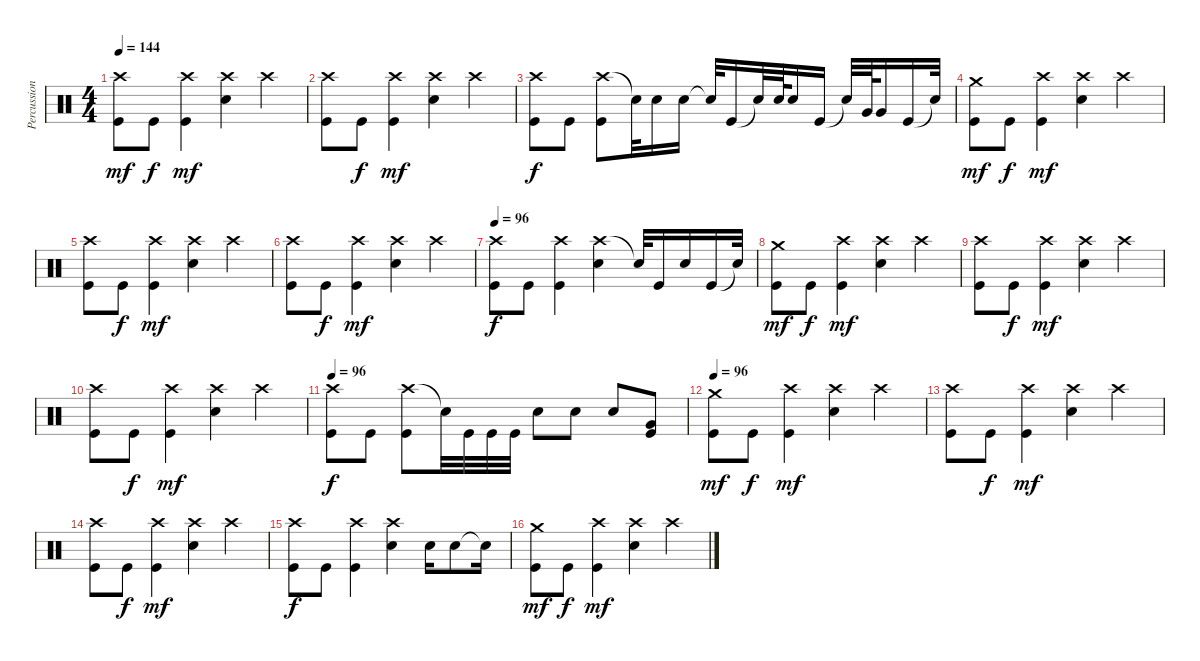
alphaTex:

\track ("Percussion" "Percussion") {instrument percussion}
\staff {score}
\articulation defaults
\ts (4 4)
\tempo 144
\clef neutral
\ks c
("Crash high (hit)" "Kick (hit)").8{dy mf} "Kick (hit)".8{dy f} ("Crash high (hit)" "Kick (hit)").4{dy mf} ("Crash high (hit)" "Electric Snare (hit)").4 "Crash high (hit)".4 |
("Crash high (hit)" "Kick (hit)").8 "Kick (hit)".8{dy f} ("Crash high (hit)" "Kick (hit)").4{dy mf} ("Crash high (hit)" "Electric Snare (hit)").4 "Crash high (hit)".4 |
("Crash high (hit)" "Kick (hit)").8{dy f} "Kick (hit)".8 ("Crash high (hit)" "Kick (hit)").8 "Snare (hit)"{t}.32 "Electric Snare (hit)".16 "Electric Snare (hit)".16 "Snare (hit)"{t}.32 "Kick (hit)".16 "Snare (hit)"{t}.32 "Electric Snare (hit)".64 "Electric Snare (hit)".16 "Kick (hit)".16 "Snare (hit)"{t}.32 "Very Low Tom (hit)".64 "Very Low Tom (hit)".16 "Kick (hit)".16 "Snare (hit)"{t}.32 |
("Crash medium (hit)" "Kick (hit)").8{dy mf} "Kick (hit)".8{dy f} ("Crash high (hit)" "Kick (hit)").4{dy mf} ("Crash high (hit)" "Electric Snare (hit)").4 "Crash high (hit)".4 |
("Crash high (hit)" "Kick (hit)").8 "Kick (hit)".8{dy f} ("Crash high (hit)" "Kick (hit)").4{dy mf} ("Crash high (hit)" "Electric Snare (hit)").4 "Crash high (hit)".4 |
("Crash high (hit)" "Kick (hit)").8 "Kick (hit)".8{dy f} ("Crash high (hit)" "Kick (hit)").4{dy mf} ("Crash high (hit)" "Electric Snare (hit)").4 "Crash high (hit)".4 |
\tempo 96
("Crash high (hit)" "Kick (hit)").8{dy f} "Kick (hit)".8 ("Crash high (hit)" "Kick (hit)").4 ("Crash high (hit)" "Electric Snare (hit)").4 "Snare (hit)"{t}.32 "Kick (hit)".16 "Electric Snare (hit)".16 "Kick (hit)".16 "Snare (hit)"{t}.32 |
("Crash medium (hit)" "Kick (hit)").8{dy mf} "Kick (hit)".8{dy f} ("Crash high (hit)" "Kick (hit)").4{dy mf} ("Crash high (hit)" "Electric Snare (hit)").4 "Crash high (hit)".4 |
("Crash high (hit)" "Kick (hit)").8 "Kick (hit)".8{dy f} ("Crash high (hit)" "Kick (hit)").4{dy mf} ("Crash high (hit)" "Electric Snare (hit)").4 "Crash high (hit)".4 |
("Crash high (hit)" "Kick (hit)").8 "Kick (hit)".8{dy f} ("Crash high (hit)" "Kick (hit)").4{dy mf} ("Crash high (hit)" "Electric Snare (hit)").4 "Crash high (hit)".4 |
\tempo 96
("Crash high (hit)" "Kick (hit)").8{dy f} "Kick (hit)".8 ("Crash high (hit)" "Kick (hit)").8 "Snare (hit)"{t}.32 "Kick (hit)".32 "Kick (hit)".32 "Kick (hit)".32 "Electric Snare (hit)".8 "Electric Snare (hit)".8 "Electric Snare (hit)".8 ("Very Low Tom (hit)" "Kick (hit)").8 |
\tempo 96
("Crash medium (hit)" "Kick (hit)").8{dy mf} "Kick (hit)".8{dy f} ("Crash high (hit)" "Kick (hit)").4{dy mf} ("Crash high (hit)" "Electric Snare (hit)").4 "Crash high (hit)".4 |
("Crash high (hit)" "Kick (hit)").8 "Kick (hit)".8{dy f} ("Crash high (hit)" "Kick (hit)").4{dy mf} ("Crash high (hit)" "Electric Snare (hit)").4 "Crash high (hit)".4 |
("Crash high (hit)" "Kick (hit)").8 "Kick (hit)".8{dy f} ("Crash high (hit)" "Kick (hit)").4{dy mf} ("Crash high (hit)" "Electric Snare (hit)").4 "Crash high (hit)".4 |
("Crash high (hit)" "Kick (hit)").8{dy f volume 12} "Kick (hit)".8 ("Crash high (hit)" "Kick (hit)").4 ("Crash high (hit)" "Electric Snare (hit)").4 "Electric Snare (hit)".16 "Electric Snare (hit)".8 "Snare (hit)"{t}.16 |
("Crash medium (hit)" "Kick (hit)").8{dy mf} "Kick (hit)".8{dy f} ("Crash high (hit)" "Kick (hit)").4{dy mf} ("Crash high (hit)" "Electric Snare (hit)").4 "Crash high (hit)".4
